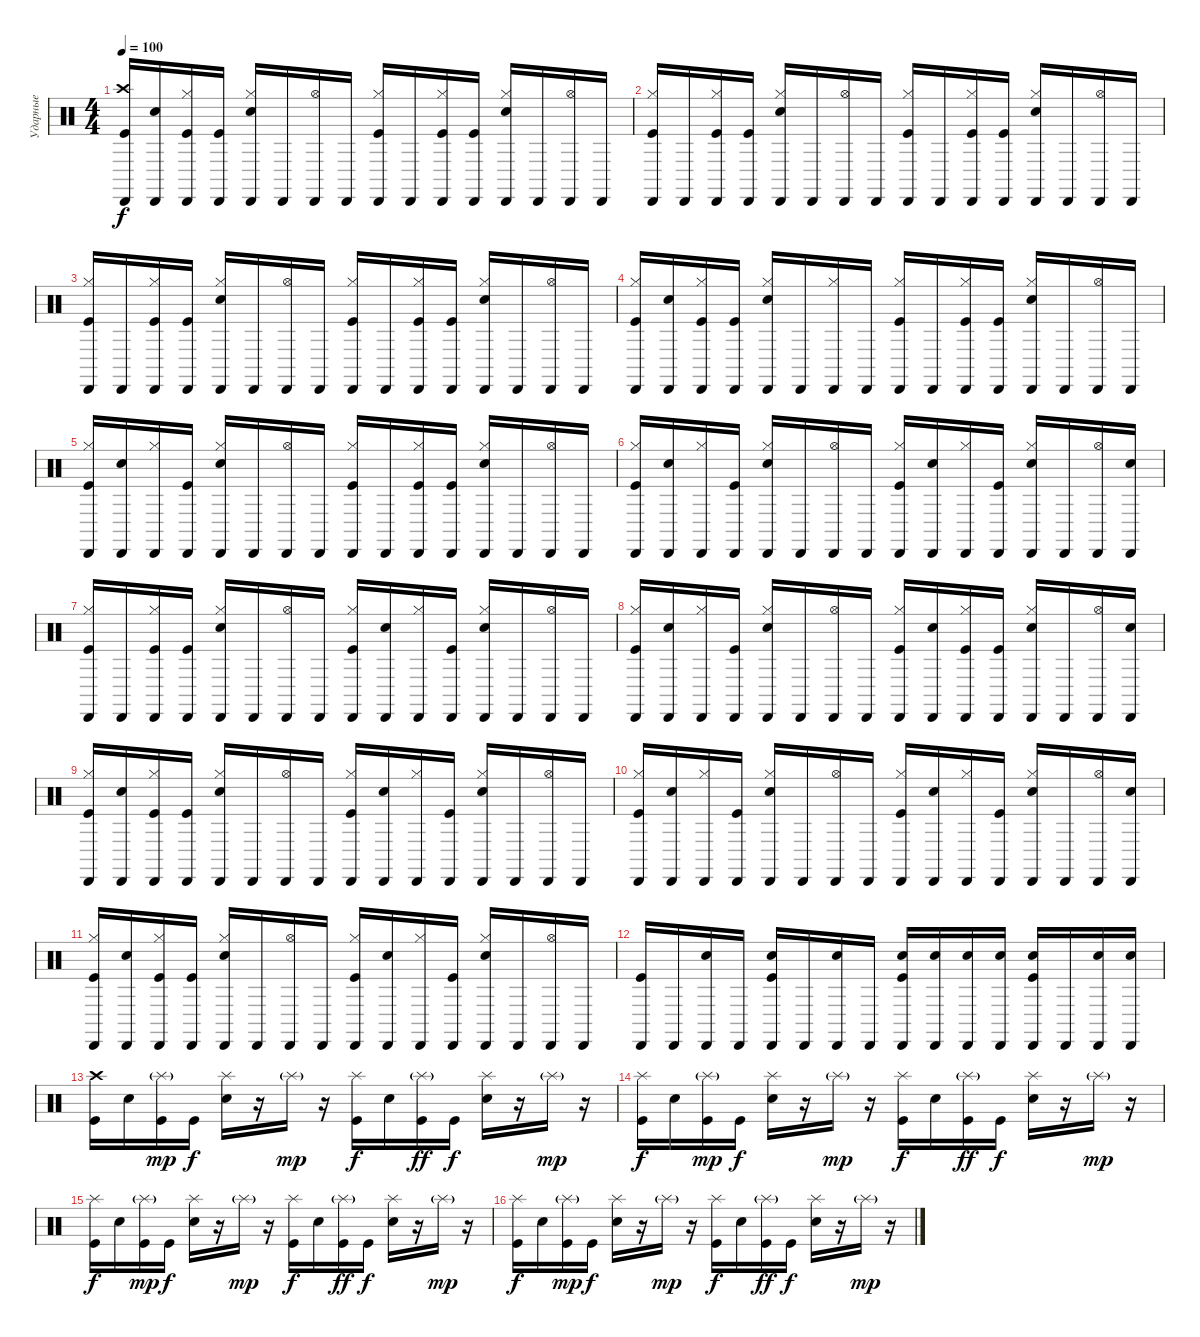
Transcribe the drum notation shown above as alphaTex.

\track ("Ударные" "Ударные") {instrument percussion}
\staff {score}
\articulation defaults
\ts (4 4)
\tempo 100
\clef neutral
\ks c
("Crash high (hit)" "Kick (hit)" "Cabasa (hit)").16{dy f} ("Snare (hit) 2" "Cabasa (hit)").16 ("Hi-Hat (closed)" "Kick (hit)" "Cabasa (hit)").16 ("Kick (hit)" "Cabasa (hit)").16 ("Hi-Hat (closed)" "Snare (hit) 2" "Cabasa (hit)").16 "Cabasa (hit)".16 ("Hi-Hat (open)" "Cabasa (hit)").16 "Cabasa (hit)".16 ("Hi-Hat (closed)" "Kick (hit)" "Cabasa (hit)").16 "Cabasa (hit)".16 ("Hi-Hat (closed)" "Kick (hit)" "Cabasa (hit)").16 ("Kick (hit)" "Cabasa (hit)").16 ("Hi-Hat (closed)" "Snare (hit) 2" "Cabasa (hit)").16 "Cabasa (hit)".16 ("Hi-Hat (open)" "Cabasa (hit)").16 "Cabasa (hit)".16 |
("Hi-Hat (closed)" "Kick (hit)" "Cabasa (hit)").16 "Cabasa (hit)".16 ("Hi-Hat (closed)" "Kick (hit)" "Cabasa (hit)").16 ("Kick (hit)" "Cabasa (hit)").16 ("Hi-Hat (closed)" "Snare (hit) 2" "Cabasa (hit)").16 "Cabasa (hit)".16 ("Hi-Hat (open)" "Cabasa (hit)").16 "Cabasa (hit)".16 ("Hi-Hat (closed)" "Kick (hit)" "Cabasa (hit)").16 "Cabasa (hit)".16 ("Hi-Hat (closed)" "Kick (hit)" "Cabasa (hit)").16 ("Kick (hit)" "Cabasa (hit)").16 ("Hi-Hat (closed)" "Snare (hit) 2" "Cabasa (hit)").16 "Cabasa (hit)".16 ("Hi-Hat (open)" "Cabasa (hit)").16 "Cabasa (hit)".16 |
("Hi-Hat (closed)" "Kick (hit)" "Cabasa (hit)").16 "Cabasa (hit)".16 ("Hi-Hat (closed)" "Kick (hit)" "Cabasa (hit)").16 ("Kick (hit)" "Cabasa (hit)").16 ("Hi-Hat (closed)" "Snare (hit) 2" "Cabasa (hit)").16 "Cabasa (hit)".16 ("Hi-Hat (open)" "Cabasa (hit)").16 "Cabasa (hit)".16 ("Hi-Hat (closed)" "Kick (hit)" "Cabasa (hit)").16 "Cabasa (hit)".16 ("Hi-Hat (closed)" "Kick (hit)" "Cabasa (hit)").16 ("Kick (hit)" "Cabasa (hit)").16 ("Hi-Hat (closed)" "Snare (hit) 2" "Cabasa (hit)").16 "Cabasa (hit)".16 ("Hi-Hat (open)" "Cabasa (hit)").16 "Cabasa (hit)".16 |
("Hi-Hat (closed)" "Kick (hit)" "Cabasa (hit)").16 ("Snare (hit) 2" "Cabasa (hit)").16 ("Hi-Hat (closed)" "Kick (hit)" "Cabasa (hit)").16 ("Kick (hit)" "Cabasa (hit)").16 ("Hi-Hat (closed)" "Snare (hit) 2" "Cabasa (hit)").16 "Cabasa (hit)".16 ("Hi-Hat (closed)" "Cabasa (hit)").16 "Cabasa (hit)".16 ("Hi-Hat (closed)" "Kick (hit)" "Cabasa (hit)").16 "Cabasa (hit)".16 ("Hi-Hat (closed)" "Kick (hit)" "Cabasa (hit)").16 ("Kick (hit)" "Cabasa (hit)").16 ("Hi-Hat (closed)" "Snare (hit) 2" "Cabasa (hit)").16 "Cabasa (hit)".16 ("Hi-Hat (open)" "Cabasa (hit)").16 "Cabasa (hit)".16 |
("Hi-Hat (closed)" "Kick (hit)" "Cabasa (hit)").16 ("Snare (hit) 2" "Cabasa (hit)").16 ("Hi-Hat (closed)" "Cabasa (hit)").16 ("Kick (hit)" "Cabasa (hit)").16 ("Hi-Hat (closed)" "Snare (hit) 2" "Cabasa (hit)").16 "Cabasa (hit)".16 ("Hi-Hat (open)" "Cabasa (hit)").16 "Cabasa (hit)".16 ("Hi-Hat (closed)" "Kick (hit)" "Cabasa (hit)").16 "Cabasa (hit)".16 ("Hi-Hat (closed)" "Kick (hit)" "Cabasa (hit)").16 ("Kick (hit)" "Cabasa (hit)").16 ("Hi-Hat (closed)" "Snare (hit) 2" "Cabasa (hit)").16 "Cabasa (hit)".16 ("Hi-Hat (open)" "Cabasa (hit)").16 "Cabasa (hit)".16 |
("Hi-Hat (closed)" "Kick (hit)" "Cabasa (hit)").16 ("Snare (hit) 2" "Cabasa (hit)").16 ("Hi-Hat (closed)" "Cabasa (hit)").16 ("Kick (hit)" "Cabasa (hit)").16 ("Hi-Hat (closed)" "Snare (hit) 2" "Cabasa (hit)").16 "Cabasa (hit)".16 ("Hi-Hat (open)" "Cabasa (hit)").16 "Cabasa (hit)".16 ("Hi-Hat (closed)" "Kick (hit)" "Cabasa (hit)").16 ("Snare (hit) 2" "Cabasa (hit)").16 ("Hi-Hat (closed)" "Cabasa (hit)").16 ("Kick (hit)" "Cabasa (hit)").16 ("Hi-Hat (closed)" "Snare (hit) 2" "Cabasa (hit)").16 "Cabasa (hit)".16 ("Hi-Hat (open)" "Cabasa (hit)").16 ("Snare (hit) 2" "Cabasa (hit)").16 |
("Hi-Hat (closed)" "Kick (hit)" "Cabasa (hit)").16 "Cabasa (hit)".16 ("Hi-Hat (closed)" "Kick (hit)" "Cabasa (hit)").16 ("Kick (hit)" "Cabasa (hit)").16 ("Hi-Hat (closed)" "Snare (hit) 2" "Cabasa (hit)").16 "Cabasa (hit)".16 ("Hi-Hat (open)" "Cabasa (hit)").16 "Cabasa (hit)".16 ("Hi-Hat (closed)" "Kick (hit)" "Cabasa (hit)").16 ("Snare (hit) 2" "Cabasa (hit)").16 ("Hi-Hat (closed)" "Cabasa (hit)").16 ("Kick (hit)" "Cabasa (hit)").16 ("Hi-Hat (closed)" "Snare (hit) 2" "Cabasa (hit)").16 "Cabasa (hit)".16 ("Hi-Hat (open)" "Cabasa (hit)").16 "Cabasa (hit)".16 |
("Hi-Hat (closed)" "Kick (hit)" "Cabasa (hit)").16 ("Snare (hit) 2" "Cabasa (hit)").16 ("Hi-Hat (closed)" "Cabasa (hit)").16 ("Kick (hit)" "Cabasa (hit)").16 ("Hi-Hat (closed)" "Snare (hit) 2" "Cabasa (hit)").16 "Cabasa (hit)".16 ("Hi-Hat (open)" "Cabasa (hit)").16 "Cabasa (hit)".16 ("Hi-Hat (closed)" "Kick (hit)" "Cabasa (hit)").16 ("Snare (hit) 2" "Cabasa (hit)").16 ("Hi-Hat (closed)" "Kick (hit)" "Cabasa (hit)").16 ("Kick (hit)" "Cabasa (hit)").16 ("Hi-Hat (closed)" "Snare (hit) 2" "Cabasa (hit)").16 "Cabasa (hit)".16 ("Hi-Hat (open)" "Cabasa (hit)").16 ("Snare (hit) 2" "Cabasa (hit)").16 |
("Hi-Hat (closed)" "Kick (hit)" "Cabasa (hit)").16 ("Snare (hit) 2" "Cabasa (hit)").16 ("Hi-Hat (closed)" "Kick (hit)" "Cabasa (hit)").16 ("Kick (hit)" "Cabasa (hit)").16 ("Hi-Hat (closed)" "Snare (hit) 2" "Cabasa (hit)").16 "Cabasa (hit)".16 ("Hi-Hat (open)" "Cabasa (hit)").16 "Cabasa (hit)".16 ("Hi-Hat (closed)" "Kick (hit)" "Cabasa (hit)").16 ("Snare (hit) 2" "Cabasa (hit)").16 ("Hi-Hat (closed)" "Cabasa (hit)").16 ("Kick (hit)" "Cabasa (hit)").16 ("Hi-Hat (closed)" "Snare (hit) 2" "Cabasa (hit)").16 "Cabasa (hit)".16 ("Hi-Hat (open)" "Cabasa (hit)").16 "Cabasa (hit)".16 |
("Hi-Hat (closed)" "Kick (hit)" "Cabasa (hit)").16 ("Snare (hit) 2" "Cabasa (hit)").16 ("Hi-Hat (closed)" "Cabasa (hit)").16 ("Kick (hit)" "Cabasa (hit)").16 ("Hi-Hat (closed)" "Snare (hit) 2" "Cabasa (hit)").16 "Cabasa (hit)".16 ("Hi-Hat (open)" "Cabasa (hit)").16 "Cabasa (hit)".16 ("Hi-Hat (closed)" "Kick (hit)" "Cabasa (hit)").16 ("Snare (hit) 2" "Cabasa (hit)").16 ("Hi-Hat (closed)" "Cabasa (hit)").16 ("Kick (hit)" "Cabasa (hit)").16 ("Hi-Hat (closed)" "Snare (hit) 2" "Cabasa (hit)").16 "Cabasa (hit)".16 ("Hi-Hat (open)" "Cabasa (hit)").16 ("Snare (hit) 2" "Cabasa (hit)").16 |
("Hi-Hat (closed)" "Kick (hit)" "Cabasa (hit)").16 ("Snare (hit) 2" "Cabasa (hit)").16 ("Hi-Hat (closed)" "Kick (hit)" "Cabasa (hit)").16 ("Kick (hit)" "Cabasa (hit)").16 ("Hi-Hat (closed)" "Snare (hit) 2" "Cabasa (hit)").16 "Cabasa (hit)".16 ("Hi-Hat (open)" "Cabasa (hit)").16 "Cabasa (hit)".16 ("Hi-Hat (closed)" "Kick (hit)" "Cabasa (hit)").16 ("Snare (hit) 2" "Cabasa (hit)").16 ("Hi-Hat (closed)" "Cabasa (hit)").16 ("Kick (hit)" "Cabasa (hit)").16 ("Hi-Hat (closed)" "Snare (hit) 2" "Cabasa (hit)").16 "Cabasa (hit)".16 ("Hi-Hat (open)" "Cabasa (hit)").16 "Cabasa (hit)".16 |
("Kick (hit)" "Cabasa (hit)").16 "Cabasa (hit)".16 ("Snare (hit) 2" "Cabasa (hit)").16 "Cabasa (hit)".16 ("Kick (hit)" "Snare (hit) 2" "Cabasa (hit)").16 "Cabasa (hit)".16 ("Snare (hit) 2" "Cabasa (hit)").16 "Cabasa (hit)".16 ("Kick (hit)" "Snare (hit) 2" "Cabasa (hit)").16 ("Snare (hit) 2" "Cabasa (hit)").16 ("Snare (hit) 2" "Cabasa (hit)").16 ("Snare (hit) 2" "Cabasa (hit)").16 ("Kick (hit)" "Snare (hit) 2" "Cabasa (hit)").16 "Cabasa (hit)".16 ("Snare (hit) 2" "Cabasa (hit)").16 ("Snare (hit) 2" "Cabasa (hit)").16 |
("Crash high (hit)" "Kick (hit)").16 "Snare (hit) 2".16 ("Splash (hit)"{g} "Kick (hit)").16{dy mp} "Kick (hit)".16{dy f} ("Splash (hit)" "Snare (hit) 2").16 r.16 "Splash (hit)"{g}.16{dy mp} r.16 ("Splash (hit)" "Kick (hit)").16{dy f} "Snare (hit) 2".16 ("Splash (hit)"{g} "Kick (hit)").16{dy ff} "Kick (hit)".16{dy f} ("Splash (hit)" "Snare (hit) 2").16 r.16 "Splash (hit)"{g}.16{dy mp} r.16 |
("Splash (hit)" "Kick (hit)").16{dy f} "Snare (hit) 2".16 ("Splash (hit)"{g} "Kick (hit)").16{dy mp} "Kick (hit)".16{dy f} ("Splash (hit)" "Snare (hit) 2").16 r.16 "Splash (hit)"{g}.16{dy mp} r.16 ("Splash (hit)" "Kick (hit)").16{dy f} "Snare (hit) 2".16 ("Splash (hit)"{g} "Kick (hit)").16{dy ff} "Kick (hit)".16{dy f} ("Splash (hit)" "Snare (hit) 2").16 r.16 "Splash (hit)"{g}.16{dy mp} r.16 |
("Splash (hit)" "Kick (hit)").16{dy f} "Snare (hit) 2".16 ("Splash (hit)"{g} "Kick (hit)").16{dy mp} "Kick (hit)".16{dy f} ("Splash (hit)" "Snare (hit) 2").16 r.16 "Splash (hit)"{g}.16{dy mp} r.16 ("Splash (hit)" "Kick (hit)").16{dy f} "Snare (hit) 2".16 ("Splash (hit)"{g} "Kick (hit)").16{dy ff} "Kick (hit)".16{dy f} ("Splash (hit)" "Snare (hit) 2").16 r.16 "Splash (hit)"{g}.16{dy mp} r.16 |
("Splash (hit)" "Kick (hit)").16{dy f} "Snare (hit) 2".16 ("Splash (hit)"{g} "Kick (hit)").16{dy mp} "Kick (hit)".16{dy f} ("Splash (hit)" "Snare (hit) 2").16 r.16 "Splash (hit)"{g}.16{dy mp} r.16 ("Splash (hit)" "Kick (hit)").16{dy f} "Snare (hit) 2".16 ("Splash (hit)"{g} "Kick (hit)").16{dy ff} "Kick (hit)".16{dy f} ("Splash (hit)" "Snare (hit) 2").16 r.16 "Splash (hit)"{g}.16{dy mp} r.16
